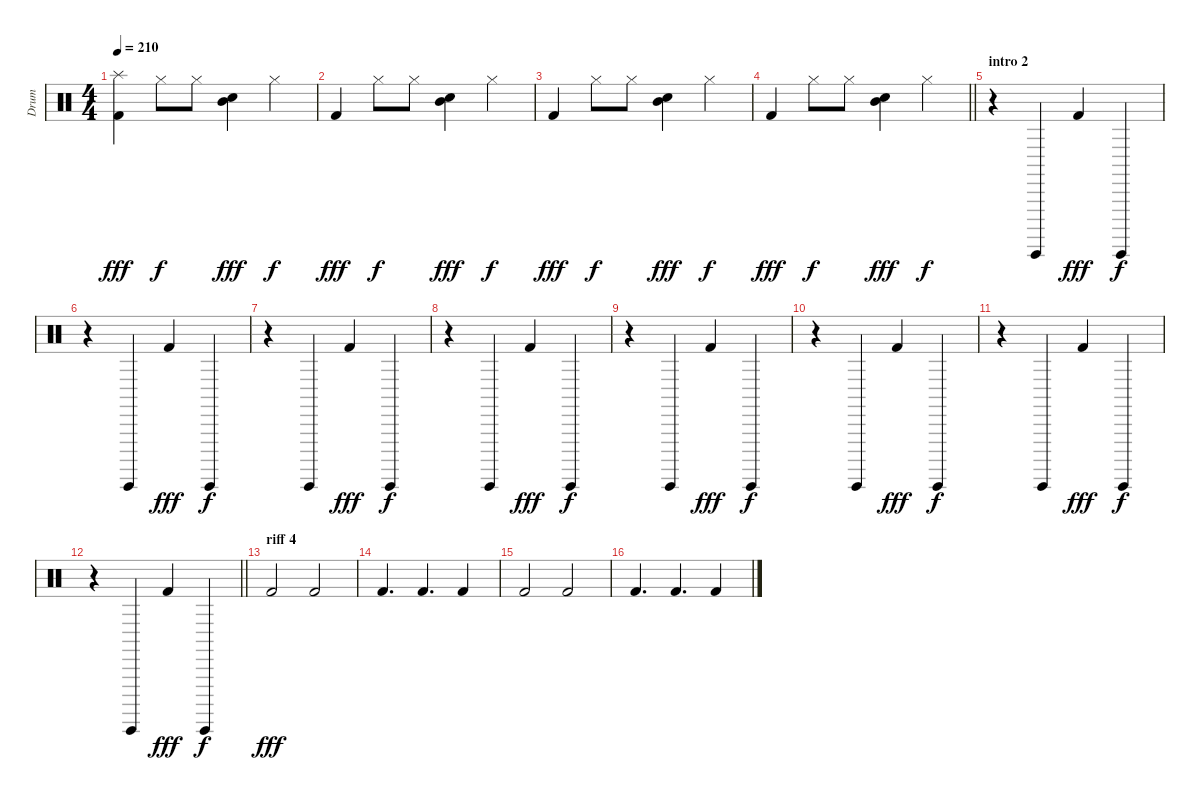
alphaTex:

\track ("Drum" "Drum") {instrument percussion}
\staff {score}
\articulation defaults
\ts (4 4)
\tempo 210
\clef neutral
\ks c
("Kick (hit) 2" "Splash (hit)").4{dy fff} "Hi-Hat (closed)".8{dy f} "Hi-Hat (closed)".8 ("Snare (hit) 2" "Mid Tom (hit)").4{dy fff} "Hi-Hat (closed)".4{dy f} |
"Kick (hit) 2".4{dy fff} "Hi-Hat (closed)".8{dy f} "Hi-Hat (closed)".8 ("Snare (hit) 2" "Mid Tom (hit)").4{dy fff} "Hi-Hat (closed)".4{dy f} |
"Kick (hit) 2".4{dy fff} "Hi-Hat (closed)".8{dy f} "Hi-Hat (closed)".8 ("Snare (hit) 2" "Mid Tom (hit)").4{dy fff} "Hi-Hat (closed)".4{dy f} |
\barLineRight lightlight "Kick (hit) 2".4{dy fff} "Hi-Hat (closed)".8{dy f} "Hi-Hat (closed)".8
("Snare (hit) 2" "Mid Tom (hit)").4{dy fff} "Hi-Hat (closed)".4{dy f} |
\section ("" "intro 2")
r.4 "Guiro (hit)".4 "Kick (hit) 2".4{dy fff} "Guiro (hit)".4{dy f} |
r.4 "Guiro (hit)".4 "Kick (hit) 2".4{dy fff} "Guiro (hit)".4{dy f} |
r.4 "Guiro (hit)".4 "Kick (hit) 2".4{dy fff} "Guiro (hit)".4{dy f} |
r.4 "Guiro (hit)".4 "Kick (hit) 2".4{dy fff} "Guiro (hit)".4{dy f} |
r.4 "Guiro (hit)".4 "Kick (hit) 2".4{dy fff} "Guiro (hit)".4{dy f} |
r.4 "Guiro (hit)".4 "Kick (hit) 2".4{dy fff} "Guiro (hit)".4{dy f} |
r.4 "Guiro (hit)".4 "Kick (hit) 2".4{dy fff} "Guiro (hit)".4{dy f} |
\barLineRight lightlight
r.4 "Guiro (hit)".4 "Kick (hit) 2".4{dy fff} "Guiro (hit)".4{dy f} |
\section ("" "riff 4")
"Kick (hit) 2".2{dy fff} "Kick (hit) 2".2 |
"Kick (hit) 2".4{d} "Kick (hit) 2".4{d} "Kick (hit) 2".4 |
"Kick (hit) 2".2 "Kick (hit) 2".2 |
"Kick (hit) 2".4{d} "Kick (hit) 2".4{d} "Kick (hit) 2".4
